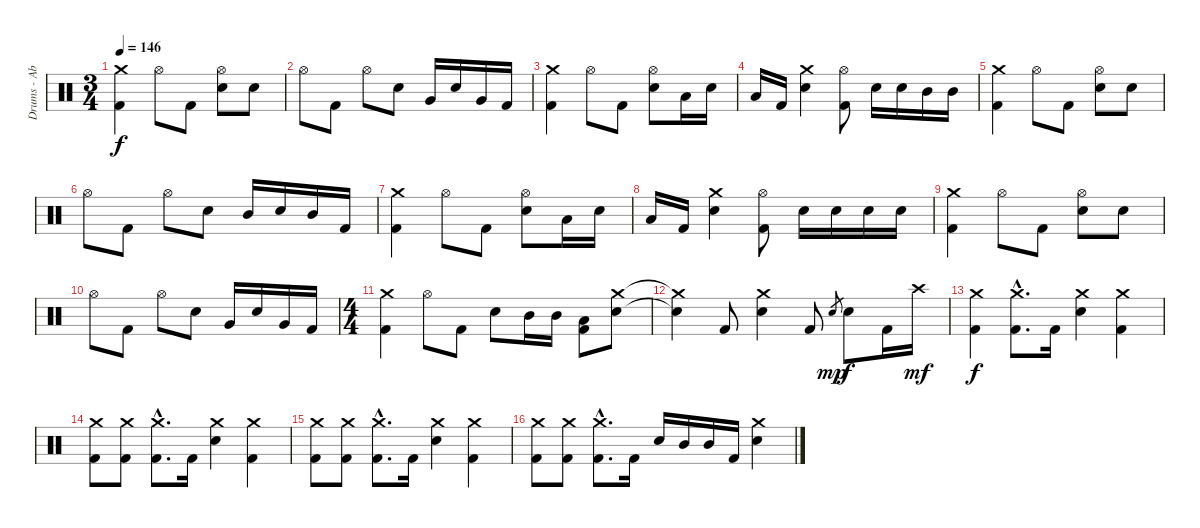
\track ("Drums - Abe Cunningham" "Drums - Ab") {instrument percussion}
\staff {score}
\articulation defaults
\ts (3 4)
\tempo 146
\clef neutral
\ks c
("Crash medium (hit)" "Kick (hit) 2").4{dy f} "Hi-Hat (open)".8 "Kick (hit) 2".8 ("Hi-Hat (open)" "Electric Snare (hit)").8 "Electric Snare (hit)".8 |
"Hi-Hat (open)".8 "Kick (hit) 2".8 "Hi-Hat (open)".8 "Electric Snare (hit)".8 "Very Low Tom (hit)".16 "Electric Snare (hit)".16 "Very Low Tom (hit)".16 "Kick (hit) 2".16 |
("Crash medium (hit)" "Kick (hit) 2").4 "Hi-Hat (open)".8 "Kick (hit) 2".8 ("Hi-Hat (open)" "Electric Snare (hit)").8 "Low Tom (hit)".16 "Electric Snare (hit)".16 |
"Low Tom (hit)".16 "Kick (hit) 2".16 ("Crash medium (hit)" "Electric Snare (hit)").4 ("Hi-Hat (open)" "Kick (hit) 2").8 "Electric Snare (hit)".16 "Electric Snare (hit)".16 "Mid Tom (hit)".16 "Mid Tom (hit)".16 |
("Crash medium (hit)" "Kick (hit) 2").4 "Hi-Hat (open)".8 "Kick (hit) 2".8 ("Hi-Hat (open)" "Electric Snare (hit)").8 "Electric Snare (hit)".8 |
"Hi-Hat (open)".8 "Kick (hit) 2".8 "Hi-Hat (open)".8 "Electric Snare (hit)".8 "Mid Tom (hit)".16 "Electric Snare (hit)".16 "Mid Tom (hit)".16 "Kick (hit) 2".16 |
("Crash medium (hit)" "Kick (hit) 2").4 "Hi-Hat (open)".8 "Kick (hit) 2".8 ("Hi-Hat (open)" "Electric Snare (hit)").8 "Low Tom (hit)".16 "Electric Snare (hit)".16 |
"Low Tom (hit)".16 "Kick (hit) 2".16 ("Crash medium (hit)" "Electric Snare (hit)").4 ("Hi-Hat (open)" "Kick (hit) 2").8 "Electric Snare (hit)".16 "Electric Snare (hit)".16 "Electric Snare (hit)".16 "Electric Snare (hit)".16 |
("Crash medium (hit)" "Kick (hit) 2").4 "Hi-Hat (open)".8 "Kick (hit) 2".8 ("Hi-Hat (open)" "Electric Snare (hit)").8 "Electric Snare (hit)".8 |
"Hi-Hat (open)".8 "Kick (hit) 2".8 "Hi-Hat (open)".8 "Electric Snare (hit)".8 "Very Low Tom (hit)".16 "Electric Snare (hit)".16 "Very Low Tom (hit)".16 "Kick (hit) 2".16 |
\ts (4 4)
("Crash medium (hit)" "Kick (hit) 2").4 "Hi-Hat (open)".8 "Kick (hit) 2".8 "Electric Snare (hit)".8 "Mid Tom (hit)".16 "Mid Tom (hit)".16 ("Low Tom (hit)" "Kick (hit) 2").8 ("Crash medium (hit)" "Electric Snare (hit)").8 |
("Crash medium (hit)"{t} "Electric Snare (hit)"{t}).4 "Kick (hit) 2".8 ("Crash medium (hit)" "Electric Snare (hit)").4 "Kick (hit) 2".8 "Electric Snare (hit)".8{gr dy mp} "Electric Snare (hit)".8{dy f} "Kick (hit) 2".16 "Crash high (hit)".16{dy mf} |
("Crash medium (hit)" "Kick (hit) 2").4{dy f} ("Crash medium (hit)"{hac} "Kick (hit) 2"{hac}).8{d} "Kick (hit) 2".16 ("Crash medium (hit)" "Electric Snare (hit)").4 ("Crash medium (hit)" "Kick (hit) 2").4 |
("Crash medium (hit)" "Kick (hit) 2").8 ("Crash medium (hit)" "Kick (hit) 2").8 ("Crash medium (hit)"{hac} "Kick (hit) 2"{hac}).8{d} "Kick (hit) 2".16 ("Crash medium (hit)" "Electric Snare (hit)").4 ("Crash medium (hit)" "Kick (hit) 2").4 |
("Crash medium (hit)" "Kick (hit) 2").8 ("Crash medium (hit)" "Kick (hit) 2").8 ("Crash medium (hit)"{hac} "Kick (hit) 2"{hac}).8{d} "Kick (hit) 2".16 ("Crash medium (hit)" "Electric Snare (hit)").4 ("Crash medium (hit)" "Kick (hit) 2").4 |
("Crash medium (hit)" "Kick (hit) 2").8 ("Crash medium (hit)" "Kick (hit) 2").8 ("Crash medium (hit)"{hac} "Kick (hit) 2"{hac}).8{d} "Kick (hit) 2".16 "Electric Snare (hit)".16 "Mid Tom (hit)".16 "Mid Tom (hit)".16 "Kick (hit) 2".16 ("Crash medium (hit)" "Electric Snare (hit)").4
